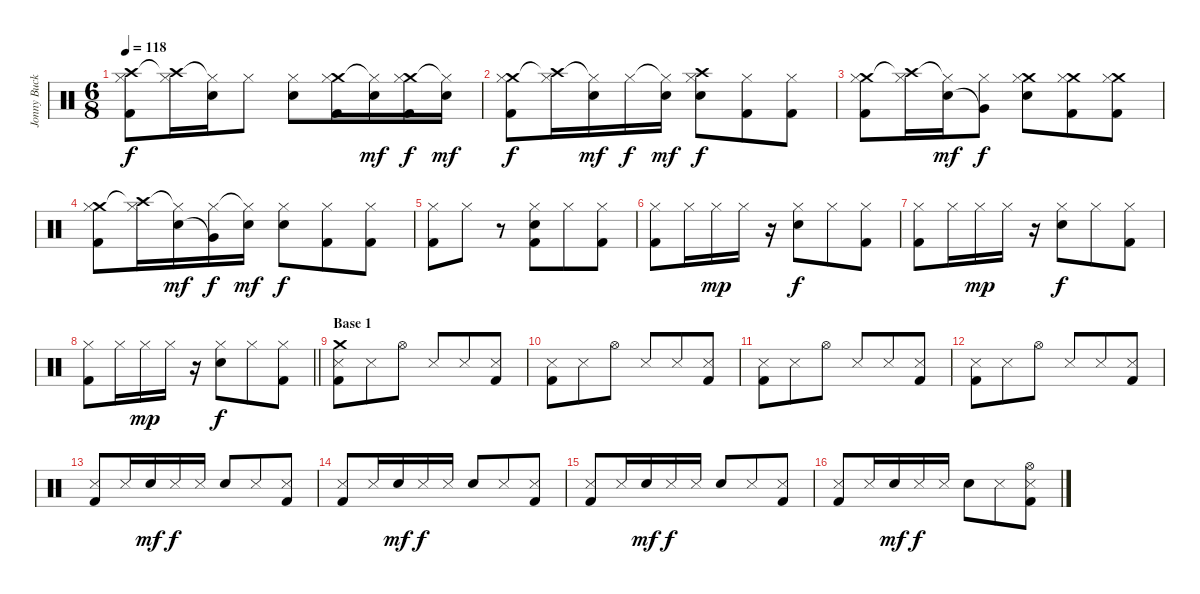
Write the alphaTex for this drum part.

\track ("Jonny Buckland (batera)" "Jonny Buck") {instrument percussion}
\staff {score}
\articulation defaults
\ts (6 8)
\tempo 118
\clef neutral
\ks c
("Crash high (hit)" "Hi-Hat (closed)" "Kick (hit) 2").8{dy f} ("Crash high (hit)"{t} "Hi-Hat (closed)").16 ("Hi-Hat (closed)"{t} "Electric Snare (hit)").16 "Hi-Hat (closed)".8 ("Hi-Hat (closed)" "Electric Snare (hit)").8 ("Crash medium (hit)" "Hi-Hat (closed)" "Kick (hit) 2").16 ("Hi-Hat (closed)"{t} "Snare (hit) 2").16{dy mf} ("Crash medium (hit)" "Hi-Hat (closed)" "Kick (hit) 2").16{dy f} ("Hi-Hat (closed)"{t} "Snare (hit) 2").16{dy mf} |
("Crash medium (hit)" "Hi-Hat (closed)" "Kick (hit) 2").8{dy f} ("Crash high (hit)"{t} "Hi-Hat (closed)").16 ("Hi-Hat (closed)"{t} "Snare (hit) 2").16{dy mf} "Hi-Hat (closed)".16{dy f} ("Hi-Hat (closed)"{t} "Snare (hit) 2").16{dy mf} ("Crash high (hit)" "Hi-Hat (closed)" "Electric Snare (hit)").8{dy f} ("Hi-Hat (closed)" "Kick (hit) 2").8 ("Hi-Hat (closed)" "Kick (hit) 2").8 |
("Crash medium (hit)" "Hi-Hat (closed)" "Kick (hit) 2").8 ("Crash high (hit)"{t} "Hi-Hat (closed)").16 ("Hi-Hat (closed)"{t} "Snare (hit) 2").16{dy mf} ("Hi-Hat (closed)" "Very Low Tom (hit)"{t}).8{dy f} ("Crash medium (hit)" "Hi-Hat (closed)" "Electric Snare (hit)").8 ("Crash medium (hit)" "Hi-Hat (closed)" "Kick (hit) 2").8 ("Crash medium (hit)" "Hi-Hat (closed)" "Kick (hit) 2").8 |
("Crash medium (hit)" "Hi-Hat (closed)" "Kick (hit) 2").8 ("Crash high (hit)"{t} "Hi-Hat (closed)").16 ("Hi-Hat (closed)"{t} "Snare (hit) 2").16{dy mf} ("Hi-Hat (closed)" "Very Low Tom (hit)"{t}).16{dy f} ("Hi-Hat (closed)"{t} "Snare (hit) 2").16{dy mf} ("Hi-Hat (closed)" "Electric Snare (hit)").8{dy f} ("Hi-Hat (closed)" "Kick (hit) 2").8 ("Hi-Hat (closed)" "Kick (hit) 2").8 |
("Hi-Hat (closed)" "Kick (hit) 2").8 "Hi-Hat (closed)".8 r.8 ("Hi-Hat (closed)" "Electric Snare (hit)" "Kick (hit) 2").8 "Hi-Hat (closed)".8 ("Hi-Hat (closed)" "Kick (hit) 2").8 |
("Hi-Hat (closed)" "Kick (hit) 2").8 "Hi-Hat (closed)".16 "Hi-Hat (closed)".16{dy mp} "Hi-Hat (closed)".16 r.16 ("Hi-Hat (closed)" "Electric Snare (hit)").8{dy f} "Hi-Hat (closed)".8 ("Hi-Hat (closed)" "Kick (hit) 2").8 |
("Hi-Hat (closed)" "Kick (hit) 2").8 "Hi-Hat (closed)".16 "Hi-Hat (closed)".16{dy mp} "Hi-Hat (closed)".16 r.16 ("Hi-Hat (closed)" "Electric Snare (hit)").8{dy f} "Hi-Hat (closed)".8 ("Hi-Hat (closed)" "Kick (hit) 2").8 |
\barLineRight lightlight
("Hi-Hat (closed)" "Kick (hit) 2").8 "Hi-Hat (closed)".16 "Hi-Hat (closed)".16{dy mp} "Hi-Hat (closed)".16 r.16 ("Hi-Hat (closed)" "Electric Snare (hit)").8{dy f} "Hi-Hat (closed)".8 ("Hi-Hat (closed)" "Kick (hit) 2").8 |
\section ("" "Base 1")
("Crash medium (hit)" "Snare (side stick) 3" "Kick (hit) 2").8 "Snare (side stick) 3".8 "Hi-Hat (open)".8 "Snare (side stick) 3".8 "Snare (side stick) 3".8 ("Snare (side stick) 3" "Kick (hit) 2").8 |
("Snare (side stick) 3" "Kick (hit) 2").8 "Snare (side stick) 3".8 "Hi-Hat (open)".8 "Snare (side stick) 3".8 "Snare (side stick) 3".8 ("Snare (side stick) 3" "Kick (hit) 2").8 |
("Snare (side stick) 3" "Kick (hit) 2").8 "Snare (side stick) 3".8 "Hi-Hat (open)".8 "Snare (side stick) 3".8 "Snare (side stick) 3".8 ("Snare (side stick) 3" "Kick (hit) 2").8 |
("Snare (side stick) 3" "Kick (hit) 2").8 "Snare (side stick) 3".8 "Hi-Hat (open)".8 "Snare (side stick) 3".8 "Snare (side stick) 3".8 ("Snare (side stick) 3" "Kick (hit) 2").8 |
("Snare (side stick) 3" "Kick (hit) 2").8 "Snare (side stick) 3".16 "Snare (hit) 2".16{dy mf} "Snare (side stick) 3".16{dy f} "Snare (side stick) 3".16 "Electric Snare (hit)".8 "Snare (side stick) 3".8 ("Snare (side stick) 3" "Kick (hit) 2").8 |
("Snare (side stick) 3" "Kick (hit) 2").8 "Snare (side stick) 3".16 "Snare (hit) 2".16{dy mf} "Snare (side stick) 3".16{dy f} "Snare (side stick) 3".16 "Electric Snare (hit)".8 "Snare (side stick) 3".8 ("Snare (side stick) 3" "Kick (hit) 2").8 |
("Snare (side stick) 3" "Kick (hit) 2").8 "Snare (side stick) 3".16 "Snare (hit) 2".16{dy mf} "Snare (side stick) 3".16{dy f} "Snare (side stick) 3".16 "Electric Snare (hit)".8 "Snare (side stick) 3".8 ("Snare (side stick) 3" "Kick (hit) 2").8 |
("Snare (side stick) 3" "Kick (hit) 2").8 "Snare (side stick) 3".16 "Snare (hit) 2".16{dy mf} "Snare (side stick) 3".16{dy f} "Snare (side stick) 3".16 "Electric Snare (hit)".8 "Snare (side stick) 3".8 ("Snare (side stick) 3" "Hi-Hat (open)" "Kick (hit) 2").8
